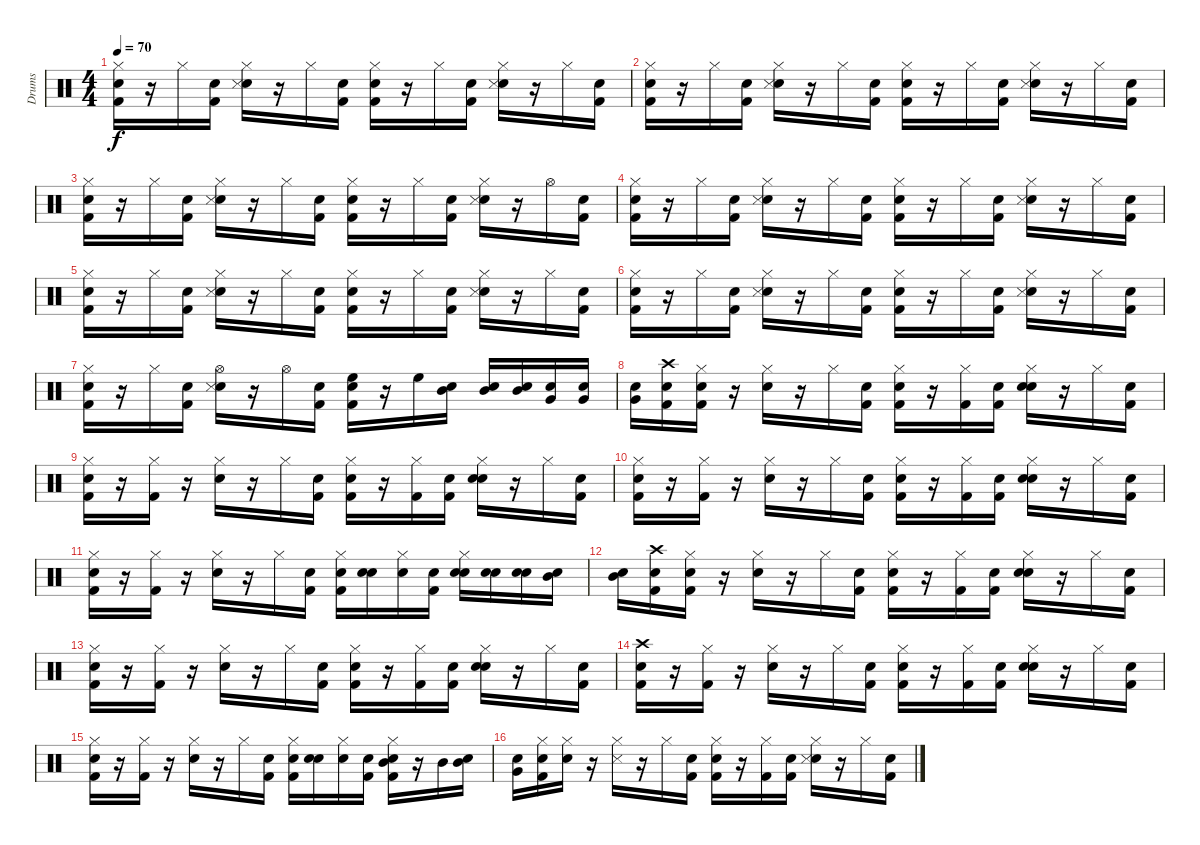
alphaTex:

\track ("Drums" "Drums") {instrument percussion}
\staff {score}
\articulation defaults
\ts (4 4)
\tempo 70
\clef neutral
\ks c
("Snare (hit)" "Kick (hit) 2" "Hi-Hat (closed)").16{dy f} r.16 "Hi-Hat (closed)".16 ("Snare (hit)" "Kick (hit) 2").16 ("Snare (hit)" "Snare (side stick) 3" "Hi-Hat (closed)").16 r.16 "Hi-Hat (closed)".16 ("Snare (hit)" "Kick (hit) 2").16 ("Snare (hit)" "Kick (hit) 2" "Hi-Hat (closed)").16 r.16 "Hi-Hat (closed)".16 ("Snare (hit)" "Kick (hit) 2").16 ("Snare (hit)" "Snare (side stick) 3" "Hi-Hat (closed)").16 r.16 "Hi-Hat (closed)".16 ("Snare (hit)" "Kick (hit) 2").16 |
("Snare (hit)" "Kick (hit) 2" "Hi-Hat (closed)").16 r.16 "Hi-Hat (closed)".16 ("Snare (hit)" "Kick (hit) 2").16 ("Snare (hit)" "Snare (side stick) 3" "Hi-Hat (closed)").16 r.16 "Hi-Hat (closed)".16 ("Snare (hit)" "Kick (hit) 2").16 ("Snare (hit)" "Kick (hit) 2" "Hi-Hat (closed)").16 r.16 "Hi-Hat (closed)".16 ("Snare (hit)" "Kick (hit) 2").16 ("Snare (hit)" "Snare (side stick) 3" "Hi-Hat (closed)").16 r.16 "Hi-Hat (closed)".16 ("Snare (hit)" "Kick (hit) 2").16 |
("Snare (hit)" "Kick (hit) 2" "Hi-Hat (closed)").16 r.16 "Hi-Hat (closed)".16 ("Snare (hit)" "Kick (hit) 2").16 ("Snare (hit)" "Snare (side stick) 3" "Hi-Hat (closed)").16 r.16 "Hi-Hat (closed)".16 ("Snare (hit)" "Kick (hit) 2").16 ("Snare (hit)" "Kick (hit) 2" "Hi-Hat (closed)").16 r.16 "Hi-Hat (closed)".16 ("Snare (hit)" "Kick (hit) 2").16 ("Snare (hit)" "Snare (side stick) 3" "Hi-Hat (closed)").16 r.16 "Hi-Hat (open)".16 ("Snare (hit)" "Kick (hit) 2").16 |
("Snare (hit)" "Kick (hit) 2" "Hi-Hat (closed)").16 r.16 "Hi-Hat (closed)".16 ("Snare (hit)" "Kick (hit) 2").16 ("Snare (hit)" "Snare (side stick) 3" "Hi-Hat (closed)").16 r.16 "Hi-Hat (closed)".16 ("Snare (hit)" "Kick (hit) 2").16 ("Snare (hit)" "Kick (hit) 2" "Hi-Hat (closed)").16 r.16 "Hi-Hat (closed)".16 ("Snare (hit)" "Kick (hit) 2").16 ("Snare (hit)" "Snare (side stick) 3" "Hi-Hat (closed)").16 r.16 "Hi-Hat (closed)".16 ("Snare (hit)" "Kick (hit) 2").16 |
("Snare (hit)" "Kick (hit) 2" "Hi-Hat (closed)").16 r.16 "Hi-Hat (closed)".16 ("Snare (hit)" "Kick (hit) 2").16 ("Snare (hit)" "Snare (side stick) 3" "Hi-Hat (closed)").16 r.16 "Hi-Hat (closed)".16 ("Snare (hit)" "Kick (hit) 2").16 ("Snare (hit)" "Kick (hit) 2" "Hi-Hat (closed)").16 r.16 "Hi-Hat (closed)".16 ("Snare (hit)" "Kick (hit) 2").16 ("Snare (hit)" "Snare (side stick) 3" "Hi-Hat (closed)").16 r.16 "Hi-Hat (closed)".16 ("Snare (hit)" "Kick (hit) 2").16 |
("Snare (hit)" "Kick (hit) 2" "Hi-Hat (closed)").16 r.16 "Hi-Hat (closed)".16 ("Snare (hit)" "Kick (hit) 2").16 ("Snare (hit)" "Snare (side stick) 3" "Hi-Hat (closed)").16 r.16 "Hi-Hat (closed)".16 ("Snare (hit)" "Kick (hit) 2").16 ("Snare (hit)" "Kick (hit) 2" "Hi-Hat (closed)").16 r.16 "Hi-Hat (closed)".16 ("Snare (hit)" "Kick (hit) 2").16 ("Snare (hit)" "Snare (side stick) 3" "Hi-Hat (closed)").16 r.16 "Hi-Hat (closed)".16 ("Snare (hit)" "Kick (hit) 2").16 |
("Snare (hit)" "Kick (hit) 2" "Hi-Hat (closed)").16 r.16 "Hi-Hat (closed)".16 ("Snare (hit)" "Kick (hit) 2").16 ("Snare (hit)" "Snare (side stick) 3" "Hi-Hat (open)").16 r.16 "Hi-Hat (open)".16 ("Snare (hit)" "Kick (hit) 2").16 ("Snare (hit)" "Kick (hit) 2" "High Floor Tom (hit)").16 r.16 "High Floor Tom (hit)".16 ("Snare (hit)" "Mid Tom (hit)").16 ("Snare (hit)" "Mid Tom (hit)").16 ("Snare (hit)" "Mid Tom (hit)").16 ("Snare (hit)" "Very Low Tom (hit)").16 ("Snare (hit)" "Very Low Tom (hit)").16 |
("Snare (hit)" "Very Low Tom (hit)").16 ("Snare (hit)" "Kick (hit) 2" "Crash high (hit)").16 ("Snare (hit)" "Kick (hit) 2" "Hi-Hat (closed)").16 r.16 ("Snare (hit) 2" "Hi-Hat (closed)").16 r.16 "Hi-Hat (closed)".16 ("Snare (hit)" "Kick (hit) 2").16 ("Snare (hit)" "Kick (hit) 2" "Hi-Hat (closed)").16 r.16 ("Kick (hit) 2" "Hi-Hat (closed)").16 ("Snare (hit)" "Kick (hit) 2").16 ("Snare (hit)" "Snare (hit) 2" "Hi-Hat (closed)").16 r.16 "Hi-Hat (closed)".16 ("Snare (hit)" "Kick (hit) 2").16 |
("Snare (hit)" "Kick (hit) 2" "Hi-Hat (closed)").16 r.16 ("Kick (hit) 2" "Hi-Hat (closed)").16 r.16 ("Snare (hit) 2" "Hi-Hat (closed)").16 r.16 "Hi-Hat (closed)".16 ("Snare (hit)" "Kick (hit) 2").16 ("Snare (hit)" "Kick (hit) 2" "Hi-Hat (closed)").16 r.16 ("Kick (hit) 2" "Hi-Hat (closed)").16 ("Snare (hit)" "Kick (hit) 2").16 ("Snare (hit)" "Snare (hit) 2" "Hi-Hat (closed)").16 r.16 "Hi-Hat (closed)".16 ("Snare (hit)" "Kick (hit) 2").16 |
("Snare (hit)" "Kick (hit) 2" "Hi-Hat (closed)").16 r.16 ("Kick (hit) 2" "Hi-Hat (closed)").16 r.16 ("Snare (hit) 2" "Hi-Hat (closed)").16 r.16 "Hi-Hat (closed)".16 ("Snare (hit)" "Kick (hit) 2").16 ("Snare (hit)" "Kick (hit) 2" "Hi-Hat (closed)").16 r.16 ("Kick (hit) 2" "Hi-Hat (closed)").16 ("Snare (hit)" "Kick (hit) 2").16 ("Snare (hit)" "Snare (hit) 2" "Hi-Hat (closed)").16 r.16 "Hi-Hat (closed)".16 ("Snare (hit)" "Kick (hit) 2").16 |
("Snare (hit)" "Kick (hit) 2" "Hi-Hat (closed)").16 r.16 ("Kick (hit) 2" "Hi-Hat (closed)").16 r.16 ("Snare (hit) 2" "Hi-Hat (closed)").16 r.16 "Hi-Hat (closed)".16 ("Snare (hit)" "Kick (hit) 2").16 ("Snare (hit)" "Kick (hit) 2" "Hi-Hat (closed)").16 ("Snare (hit)" "Snare (hit) 2").16 ("Snare (hit)" "Hi-Hat (closed)").16 ("Snare (hit)" "Kick (hit) 2").16 ("Snare (hit)" "Snare (hit) 2" "Hi-Hat (closed)").16 ("Snare (hit)" "Snare (hit) 2").16 ("Snare (hit)" "Snare (hit) 2").16 ("Snare (hit)" "Mid Tom (hit)").16 |
("Snare (hit)" "Mid Tom (hit)").16 ("Snare (hit)" "Kick (hit) 2" "Crash high (hit)").16 ("Snare (hit)" "Kick (hit) 2" "Hi-Hat (closed)").16 r.16 ("Snare (hit) 2" "Hi-Hat (closed)").16 r.16 "Hi-Hat (closed)".16 ("Snare (hit)" "Kick (hit) 2").16 ("Snare (hit)" "Kick (hit) 2" "Hi-Hat (closed)").16 r.16 ("Kick (hit) 2" "Hi-Hat (closed)").16 ("Snare (hit)" "Kick (hit) 2").16 ("Snare (hit)" "Snare (hit) 2" "Hi-Hat (closed)").16 r.16 "Hi-Hat (closed)".16 ("Snare (hit)" "Kick (hit) 2").16 |
("Snare (hit)" "Kick (hit) 2" "Hi-Hat (closed)").16 r.16 ("Kick (hit) 2" "Hi-Hat (closed)").16 r.16 ("Snare (hit) 2" "Hi-Hat (closed)").16 r.16 "Hi-Hat (closed)".16 ("Snare (hit)" "Kick (hit) 2").16 ("Snare (hit)" "Kick (hit) 2" "Hi-Hat (closed)").16 r.16 ("Kick (hit) 2" "Hi-Hat (closed)").16 ("Snare (hit)" "Kick (hit) 2").16 ("Snare (hit)" "Snare (hit) 2" "Hi-Hat (closed)").16 r.16 "Hi-Hat (closed)".16 ("Snare (hit)" "Kick (hit) 2").16 |
("Snare (hit)" "Kick (hit) 2" "Crash high (hit)").16 r.16 ("Kick (hit) 2" "Hi-Hat (closed)").16 r.16 ("Snare (hit) 2" "Hi-Hat (closed)").16 r.16 "Hi-Hat (closed)".16 ("Snare (hit)" "Kick (hit) 2").16 ("Snare (hit)" "Kick (hit) 2" "Hi-Hat (closed)").16 r.16 ("Kick (hit) 2" "Hi-Hat (closed)").16 ("Snare (hit)" "Kick (hit) 2").16 ("Snare (hit)" "Snare (hit) 2" "Hi-Hat (closed)").16 r.16 "Hi-Hat (closed)".16 ("Snare (hit)" "Kick (hit) 2").16 |
("Snare (hit)" "Kick (hit) 2" "Hi-Hat (closed)").16 r.16 ("Kick (hit) 2" "Hi-Hat (closed)").16 r.16 ("Snare (hit) 2" "Hi-Hat (closed)").16 r.16 "Hi-Hat (closed)".16 ("Snare (hit)" "Kick (hit) 2").16 ("Snare (hit)" "Kick (hit) 2" "Hi-Hat (closed)").16 ("Snare (hit)" "Snare (hit) 2").16 ("Snare (hit)" "Hi-Hat (closed)").16 ("Snare (hit)" "Kick (hit) 2").16 ("Snare (hit)" "Kick (hit) 2" "Hi-Hat (closed)" "Mid Tom (hit)").16 r.16 "Mid Tom (hit)".16 ("Snare (hit)" "Mid Tom (hit)").16 |
("Snare (hit)" "Very Low Tom (hit)").16 ("Snare (hit)" "Kick (hit) 2" "Hi-Hat (closed)").16 ("Snare (hit)" "Hi-Hat (closed)").16 r.16 ("Snare (side stick) 3" "Hi-Hat (closed)").16 r.16 "Hi-Hat (closed)".16 ("Snare (hit)" "Kick (hit) 2").16 ("Snare (hit)" "Kick (hit) 2" "Hi-Hat (closed)").16 r.16 ("Kick (hit) 2" "Hi-Hat (closed)").16 ("Snare (hit)" "Kick (hit) 2").16 ("Snare (hit)" "Snare (side stick) 3" "Hi-Hat (closed)").16 r.16 "Hi-Hat (closed)".16 ("Snare (hit)" "Kick (hit) 2").16
